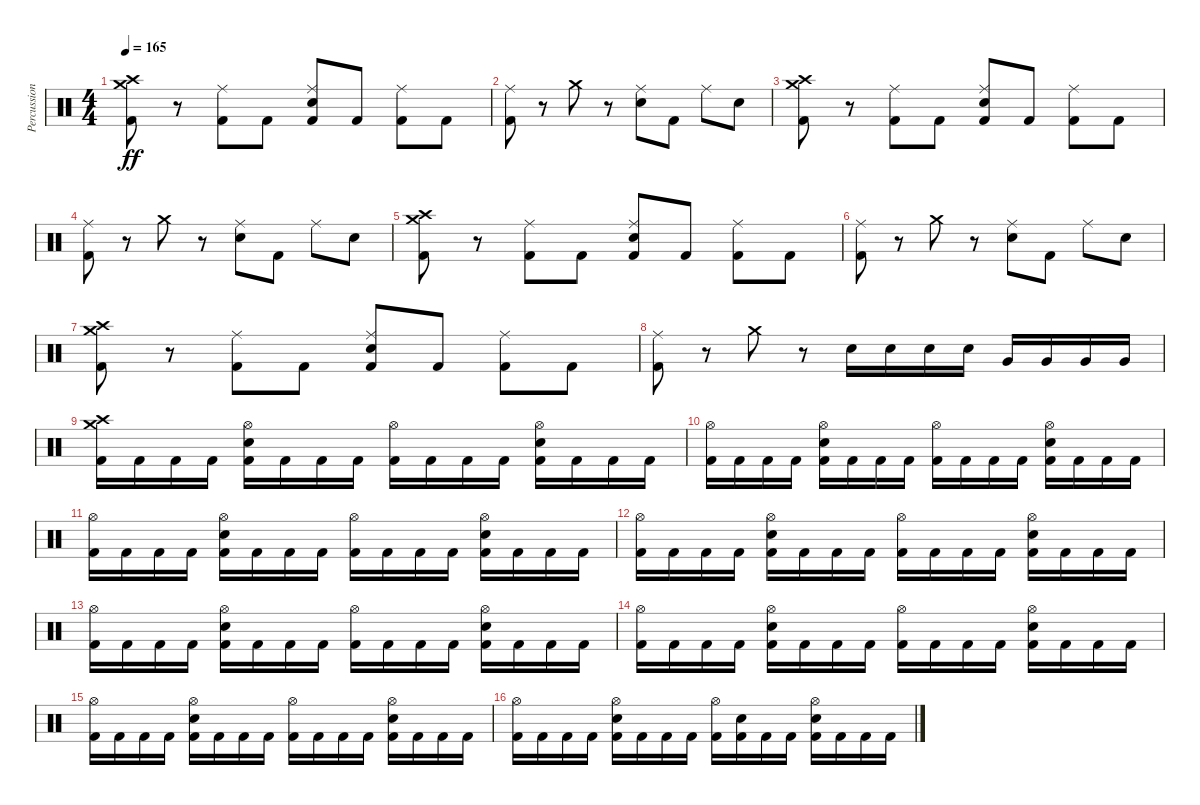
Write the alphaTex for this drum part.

\track ("Percussion" "Percussion") {instrument percussion}
\staff {score}
\articulation defaults
\ts (4 4)
\tempo 165
\clef neutral
\ks c
("Kick (hit) 2" "Crash medium (hit)" "Crash high (hit)").8{dy ff} r.8 ("Kick (hit) 2" "Ride (middle)").8 "Kick (hit) 2".8 ("Kick (hit) 2" "Electric Snare (hit)" "Ride (middle)").8 "Kick (hit) 2".8 ("Kick (hit) 2" "Ride (middle)").8 "Kick (hit) 2".8 |
("Kick (hit) 2" "Ride (middle)").8 r.8 "Crash medium (hit)".8 r.8 ("Electric Snare (hit)" "Ride (middle)").8 "Kick (hit) 2".8 "Ride (middle)".8 "Electric Snare (hit)".8 |
("Kick (hit) 2" "Crash medium (hit)" "Crash high (hit)").8 r.8 ("Kick (hit) 2" "Ride (middle)").8 "Kick (hit) 2".8 ("Kick (hit) 2" "Electric Snare (hit)" "Ride (middle)").8 "Kick (hit) 2".8 ("Kick (hit) 2" "Ride (middle)").8 "Kick (hit) 2".8 |
("Kick (hit) 2" "Ride (middle)").8 r.8 "Crash medium (hit)".8 r.8 ("Electric Snare (hit)" "Ride (middle)").8 "Kick (hit) 2".8 "Ride (middle)".8 "Electric Snare (hit)".8 |
("Kick (hit) 2" "Crash medium (hit)" "Crash high (hit)").8 r.8 ("Kick (hit) 2" "Ride (middle)").8 "Kick (hit) 2".8 ("Kick (hit) 2" "Electric Snare (hit)" "Ride (middle)").8 "Kick (hit) 2".8 ("Kick (hit) 2" "Ride (middle)").8 "Kick (hit) 2".8 |
("Kick (hit) 2" "Ride (middle)").8 r.8 "Crash medium (hit)".8 r.8 ("Electric Snare (hit)" "Ride (middle)").8 "Kick (hit) 2".8 "Ride (middle)".8 "Electric Snare (hit)".8 |
("Kick (hit) 2" "Crash medium (hit)" "Crash high (hit)").8 r.8 ("Kick (hit) 2" "Ride (middle)").8 "Kick (hit) 2".8 ("Kick (hit) 2" "Electric Snare (hit)" "Ride (middle)").8 "Kick (hit) 2".8 ("Kick (hit) 2" "Ride (middle)").8 "Kick (hit) 2".8 |
("Kick (hit) 2" "Ride (middle)").8 r.8 "Crash medium (hit)".8 r.8 "Electric Snare (hit)".16 "Electric Snare (hit)".16 "Electric Snare (hit)".16 "Electric Snare (hit)".16 "Very Low Tom (hit)".16 "Very Low Tom (hit)".16 "Very Low Tom (hit)".16 "Very Low Tom (hit)".16 |
("Kick (hit) 2" "Crash medium (hit)" "Crash high (hit)").16 "Kick (hit) 2".16 "Kick (hit) 2".16 "Kick (hit) 2".16 ("Kick (hit) 2" "Hi-Hat (open)" "Electric Snare (hit)").16 "Kick (hit) 2".16 "Kick (hit) 2".16 "Kick (hit) 2".16 ("Kick (hit) 2" "Hi-Hat (open)").16 "Kick (hit) 2".16 "Kick (hit) 2".16 "Kick (hit) 2".16 ("Kick (hit) 2" "Hi-Hat (open)" "Electric Snare (hit)").16 "Kick (hit) 2".16 "Kick (hit) 2".16 "Kick (hit) 2".16 |
("Kick (hit) 2" "Hi-Hat (open)").16 "Kick (hit) 2".16 "Kick (hit) 2".16 "Kick (hit) 2".16 ("Kick (hit) 2" "Hi-Hat (open)" "Electric Snare (hit)").16 "Kick (hit) 2".16 "Kick (hit) 2".16 "Kick (hit) 2".16 ("Kick (hit) 2" "Hi-Hat (open)").16 "Kick (hit) 2".16 "Kick (hit) 2".16 "Kick (hit) 2".16 ("Kick (hit) 2" "Hi-Hat (open)" "Electric Snare (hit)").16 "Kick (hit) 2".16 "Kick (hit) 2".16 "Kick (hit) 2".16 |
("Kick (hit) 2" "Hi-Hat (open)").16 "Kick (hit) 2".16 "Kick (hit) 2".16 "Kick (hit) 2".16 ("Kick (hit) 2" "Hi-Hat (open)" "Electric Snare (hit)").16 "Kick (hit) 2".16 "Kick (hit) 2".16 "Kick (hit) 2".16 ("Kick (hit) 2" "Hi-Hat (open)").16 "Kick (hit) 2".16 "Kick (hit) 2".16 "Kick (hit) 2".16 ("Kick (hit) 2" "Hi-Hat (open)" "Electric Snare (hit)").16 "Kick (hit) 2".16 "Kick (hit) 2".16 "Kick (hit) 2".16 |
("Kick (hit) 2" "Hi-Hat (open)").16 "Kick (hit) 2".16 "Kick (hit) 2".16 "Kick (hit) 2".16 ("Kick (hit) 2" "Hi-Hat (open)" "Electric Snare (hit)").16 "Kick (hit) 2".16 "Kick (hit) 2".16 "Kick (hit) 2".16 ("Kick (hit) 2" "Hi-Hat (open)").16 "Kick (hit) 2".16 "Kick (hit) 2".16 "Kick (hit) 2".16 ("Kick (hit) 2" "Hi-Hat (open)" "Electric Snare (hit)").16 "Kick (hit) 2".16 "Kick (hit) 2".16 "Kick (hit) 2".16 |
("Kick (hit) 2" "Hi-Hat (open)").16 "Kick (hit) 2".16 "Kick (hit) 2".16 "Kick (hit) 2".16 ("Kick (hit) 2" "Hi-Hat (open)" "Electric Snare (hit)").16 "Kick (hit) 2".16 "Kick (hit) 2".16 "Kick (hit) 2".16 ("Kick (hit) 2" "Hi-Hat (open)").16 "Kick (hit) 2".16 "Kick (hit) 2".16 "Kick (hit) 2".16 ("Kick (hit) 2" "Hi-Hat (open)" "Electric Snare (hit)").16 "Kick (hit) 2".16 "Kick (hit) 2".16 "Kick (hit) 2".16 |
("Kick (hit) 2" "Hi-Hat (open)").16 "Kick (hit) 2".16 "Kick (hit) 2".16 "Kick (hit) 2".16 ("Kick (hit) 2" "Hi-Hat (open)" "Electric Snare (hit)").16 "Kick (hit) 2".16 "Kick (hit) 2".16 "Kick (hit) 2".16 ("Kick (hit) 2" "Hi-Hat (open)").16 "Kick (hit) 2".16 "Kick (hit) 2".16 "Kick (hit) 2".16 ("Kick (hit) 2" "Hi-Hat (open)" "Electric Snare (hit)").16 "Kick (hit) 2".16 "Kick (hit) 2".16 "Kick (hit) 2".16 |
("Kick (hit) 2" "Hi-Hat (open)").16 "Kick (hit) 2".16 "Kick (hit) 2".16 "Kick (hit) 2".16 ("Kick (hit) 2" "Hi-Hat (open)" "Electric Snare (hit)").16 "Kick (hit) 2".16 "Kick (hit) 2".16 "Kick (hit) 2".16 ("Kick (hit) 2" "Hi-Hat (open)").16 "Kick (hit) 2".16 "Kick (hit) 2".16 "Kick (hit) 2".16 ("Kick (hit) 2" "Hi-Hat (open)" "Electric Snare (hit)").16 "Kick (hit) 2".16 "Kick (hit) 2".16 "Kick (hit) 2".16 |
("Kick (hit) 2" "Hi-Hat (open)").16 "Kick (hit) 2".16 "Kick (hit) 2".16 "Kick (hit) 2".16 ("Kick (hit) 2" "Hi-Hat (open)" "Electric Snare (hit)").16 "Kick (hit) 2".16 "Kick (hit) 2".16 "Kick (hit) 2".16 ("Kick (hit) 2" "Hi-Hat (open)").16 ("Kick (hit) 2" "Electric Snare (hit)").16 "Kick (hit) 2".16 "Kick (hit) 2".16 ("Kick (hit) 2" "Hi-Hat (open)" "Electric Snare (hit)").16 "Kick (hit) 2".16 "Kick (hit) 2".16 "Kick (hit) 2".16
